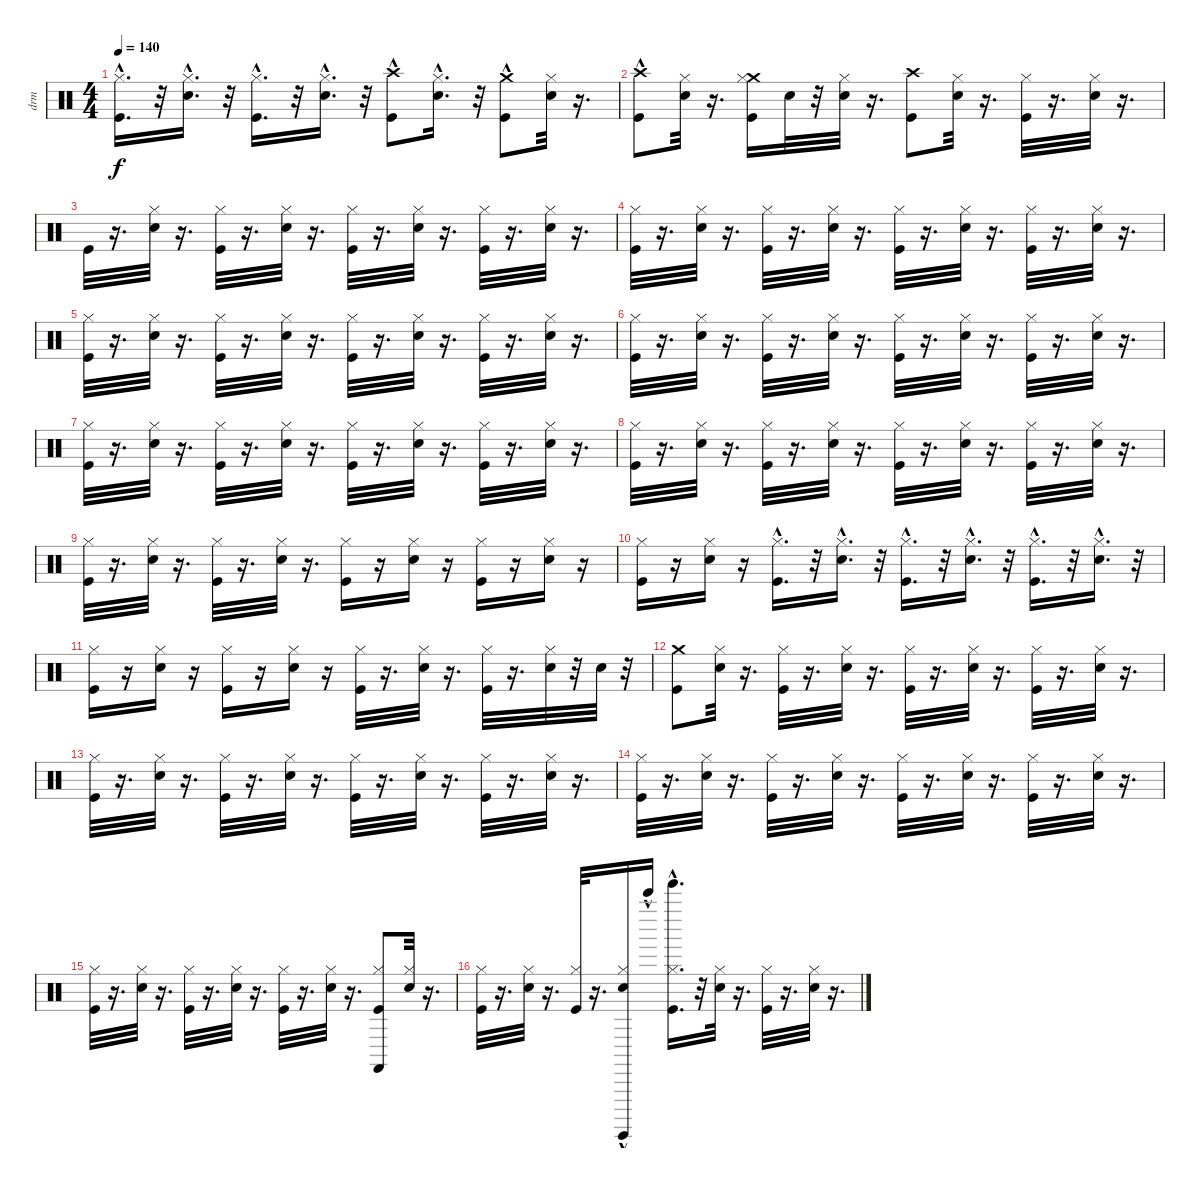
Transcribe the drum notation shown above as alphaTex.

\track ("drm" "drm") {instrument percussion}
\staff {score}
\articulation defaults
\ts (4 4)
\tempo 140
\clef neutral
\ks c
("Kick (hit)"{hac} "Hi-Hat (closed)"{hac}).16{d dy f} r.32 ("Snare (hit) 2"{hac} "Hi-Hat (closed)"{hac}).16{d} r.32 ("Kick (hit)"{hac} "Hi-Hat (closed)"{hac}).16{d} r.32 ("Snare (hit) 2"{hac} "Hi-Hat (closed)"{hac}).16{d} r.32 ("Crash high (hit)" "Kick (hit)"{hac}).8 ("Snare (hit) 2"{hac} "Hi-Hat (closed)"{hac}).16{d} r.32 ("Crash medium (hit)" "Kick (hit)"{hac}).8 ("Snare (hit) 2" "Hi-Hat (closed)").32 r.16{d} |
("Crash high (hit)" "Kick (hit)"{hac}).8 ("Snare (hit) 2" "Hi-Hat (closed)").32 r.16{d} ("Crash medium (hit)" "Kick (hit)" "Hi-Hat (closed)").16 "Snare (hit) 2".32 r.32 ("Snare (hit) 2" "Hi-Hat (closed)").32 r.16{d} ("Crash high (hit)" "Kick (hit)").8 ("Hi-Hat (closed)" "Snare (hit) 2").32 r.16{d} ("Hi-Hat (closed)" "Kick (hit)").32 r.16{d} ("Hi-Hat (closed)" "Snare (hit) 2").32 r.16{d} |
"Kick (hit)".32 r.16{d} ("Snare (hit) 2" "Hi-Hat (closed)").32 r.16{d} ("Kick (hit)" "Hi-Hat (closed)").32 r.16{d} ("Snare (hit) 2" "Hi-Hat (closed)").32 r.16{d} ("Kick (hit)" "Hi-Hat (closed)").32 r.16{d} ("Snare (hit) 2" "Hi-Hat (closed)").32 r.16{d} ("Kick (hit)" "Hi-Hat (closed)").32 r.16{d} ("Snare (hit) 2" "Hi-Hat (closed)").32 r.16{d} |
("Kick (hit)" "Hi-Hat (closed)").32 r.16{d} ("Snare (hit) 2" "Hi-Hat (closed)").32 r.16{d} ("Kick (hit)" "Hi-Hat (closed)").32 r.16{d} ("Snare (hit) 2" "Hi-Hat (closed)").32 r.16{d} ("Kick (hit)" "Hi-Hat (closed)").32 r.16{d} ("Snare (hit) 2" "Hi-Hat (closed)").32 r.16{d} ("Kick (hit)" "Hi-Hat (closed)").32 r.16{d} ("Snare (hit) 2" "Hi-Hat (closed)").32 r.16{d} |
("Kick (hit)" "Hi-Hat (closed)").32 r.16{d} ("Snare (hit) 2" "Hi-Hat (closed)").32 r.16{d} ("Kick (hit)" "Hi-Hat (closed)").32 r.16{d} ("Snare (hit) 2" "Hi-Hat (closed)").32 r.16{d} ("Kick (hit)" "Hi-Hat (closed)").32 r.16{d} ("Snare (hit) 2" "Hi-Hat (closed)").32 r.16{d} ("Kick (hit)" "Hi-Hat (closed)").32 r.16{d} ("Snare (hit) 2" "Hi-Hat (closed)").32 r.16{d} |
("Kick (hit)" "Hi-Hat (closed)").32 r.16{d} ("Snare (hit) 2" "Hi-Hat (closed)").32 r.16{d} ("Kick (hit)" "Hi-Hat (closed)").32 r.16{d} ("Snare (hit) 2" "Hi-Hat (closed)").32 r.16{d} ("Kick (hit)" "Hi-Hat (closed)").32 r.16{d} ("Snare (hit) 2" "Hi-Hat (closed)").32 r.16{d} ("Kick (hit)" "Hi-Hat (closed)").32 r.16{d} ("Snare (hit) 2" "Hi-Hat (closed)").32 r.16{d} |
("Kick (hit)" "Hi-Hat (closed)").32 r.16{d} ("Snare (hit) 2" "Hi-Hat (closed)").32 r.16{d} ("Kick (hit)" "Hi-Hat (closed)").32 r.16{d} ("Snare (hit) 2" "Hi-Hat (closed)").32 r.16{d} ("Kick (hit)" "Hi-Hat (closed)").32 r.16{d} ("Snare (hit) 2" "Hi-Hat (closed)").32 r.16{d} ("Kick (hit)" "Hi-Hat (closed)").32 r.16{d} ("Snare (hit) 2" "Hi-Hat (closed)").32 r.16{d} |
("Kick (hit)" "Hi-Hat (closed)").32 r.16{d} ("Snare (hit) 2" "Hi-Hat (closed)").32 r.16{d} ("Kick (hit)" "Hi-Hat (closed)").32 r.16{d} ("Snare (hit) 2" "Hi-Hat (closed)").32 r.16{d} ("Kick (hit)" "Hi-Hat (closed)").32 r.16{d} ("Snare (hit) 2" "Hi-Hat (closed)").32 r.16{d} ("Kick (hit)" "Hi-Hat (closed)").32 r.16{d} ("Snare (hit) 2" "Hi-Hat (closed)").32 r.16{d} |
("Kick (hit)" "Hi-Hat (closed)").32 r.16{d} ("Snare (hit) 2" "Hi-Hat (closed)").32 r.16{d} ("Kick (hit)" "Hi-Hat (closed)").32 r.16{d} ("Snare (hit) 2" "Hi-Hat (closed)").32 r.16{d} ("Kick (hit)" "Hi-Hat (closed)").16 r.16 ("Snare (hit) 2" "Hi-Hat (closed)").16 r.16 ("Kick (hit)" "Hi-Hat (closed)").16 r.16 ("Snare (hit) 2" "Hi-Hat (closed)").16 r.16 |
("Kick (hit)" "Hi-Hat (closed)").16 r.16 ("Hi-Hat (closed)" "Snare (hit) 2").16 r.16 ("Kick (hit)"{hac} "Hi-Hat (closed)"{hac}).16{d} r.32 ("Snare (hit) 2" "Hi-Hat (closed)"{hac}).16{d} r.32 ("Kick (hit)"{hac} "Hi-Hat (closed)"{hac}).16{d} r.32 ("Hi-Hat (closed)" "Snare (hit) 2"{hac}).16{d} r.32 ("Kick (hit)" "Hi-Hat (closed)"{hac}).16{d} r.32 ("Hi-Hat (closed)" "Snare (hit) 2"{hac}).16{d} r.32 |
("Kick (hit)" "Hi-Hat (closed)").16 r.16 ("Snare (hit) 2" "Hi-Hat (closed)").16 r.16 ("Kick (hit)" "Hi-Hat (closed)").16 r.16 ("Snare (hit) 2" "Hi-Hat (closed)").16 r.16 ("Hi-Hat (closed)" "Kick (hit)").32 r.16{d} ("Hi-Hat (closed)" "Snare (hit) 2").32 r.16{d} ("Hi-Hat (closed)" "Kick (hit)").32 r.16{d} ("Hi-Hat (closed)" "Snare (hit) 2").32 r.32 "Snare (hit) 2".32 r.32 |
("Crash medium (hit)" "Kick (hit)").8 ("Snare (hit) 2" "Hi-Hat (closed)").32 r.16{d} ("Kick (hit)" "Hi-Hat (closed)").32 r.16{d} ("Snare (hit) 2" "Hi-Hat (closed)").32 r.16{d} ("Kick (hit)" "Hi-Hat (closed)").32 r.16{d} ("Snare (hit) 2" "Hi-Hat (closed)").32 r.16{d} ("Kick (hit)" "Hi-Hat (closed)").32 r.16{d} ("Snare (hit) 2" "Hi-Hat (closed)").32 r.16{d} |
("Kick (hit)" "Hi-Hat (closed)").32 r.16{d} ("Snare (hit) 2" "Hi-Hat (closed)").32 r.16{d} ("Kick (hit)" "Hi-Hat (closed)").32 r.16{d} ("Snare (hit) 2" "Hi-Hat (closed)").32 r.16{d} ("Kick (hit)" "Hi-Hat (closed)").32 r.16{d} ("Snare (hit) 2" "Hi-Hat (closed)").32 r.16{d} ("Kick (hit)" "Hi-Hat (closed)").32 r.16{d} ("Snare (hit) 2" "Hi-Hat (closed)").32 r.16{d} |
("Kick (hit)" "Hi-Hat (closed)").32 r.16{d} ("Snare (hit) 2" "Hi-Hat (closed)").32 r.16{d} ("Kick (hit)" "Hi-Hat (closed)").32 r.16{d} ("Snare (hit) 2" "Hi-Hat (closed)").32 r.16{d} ("Kick (hit)" "Hi-Hat (closed)").32 r.16{d} ("Snare (hit) 2" "Hi-Hat (closed)").32 r.16{d} ("Kick (hit)" "Hi-Hat (closed)").32 r.16{d} ("Snare (hit) 2" "Hi-Hat (closed)").32 r.16{d} |
("Kick (hit)" "Hi-Hat (closed)").32 r.16{d} ("Snare (hit) 2" "Hi-Hat (closed)").32 r.16{d} ("Kick (hit)" "Hi-Hat (closed)").32 r.16{d} ("Snare (hit) 2" "Hi-Hat (closed)").32 r.16{d} ("Kick (hit)" "Hi-Hat (closed)").32 r.16{d} ("Snare (hit) 2" "Hi-Hat (closed)").32 r.16{d} ("Castanets (hit)" "Kick (hit)" "Hi-Hat (closed)").8 ("Snare (hit) 2" "Hi-Hat (closed)").32 r.16{d} |
("Kick (hit)" "Hi-Hat (closed)").32 r.16{d} ("Snare (hit) 2" "Hi-Hat (closed)").32 r.16{d} ("Kick (hit)" "Hi-Hat (closed)").32 r.16{d} ("Surdo (hit)"{hac} "Snare (hit) 2" "Hi-Hat (closed)").16 "Bell Tree (hit)"{hac}.16 ("Tinkle Bell (hit)"{hac} "Kick (hit)" "Hi-Hat (closed)").16{d} r.32 ("Snare (hit) 2" "Hi-Hat (closed)").32 r.16{d} ("Kick (hit)" "Hi-Hat (closed)").32 r.16{d} ("Snare (hit) 2" "Hi-Hat (closed)").32 r.16{d}
